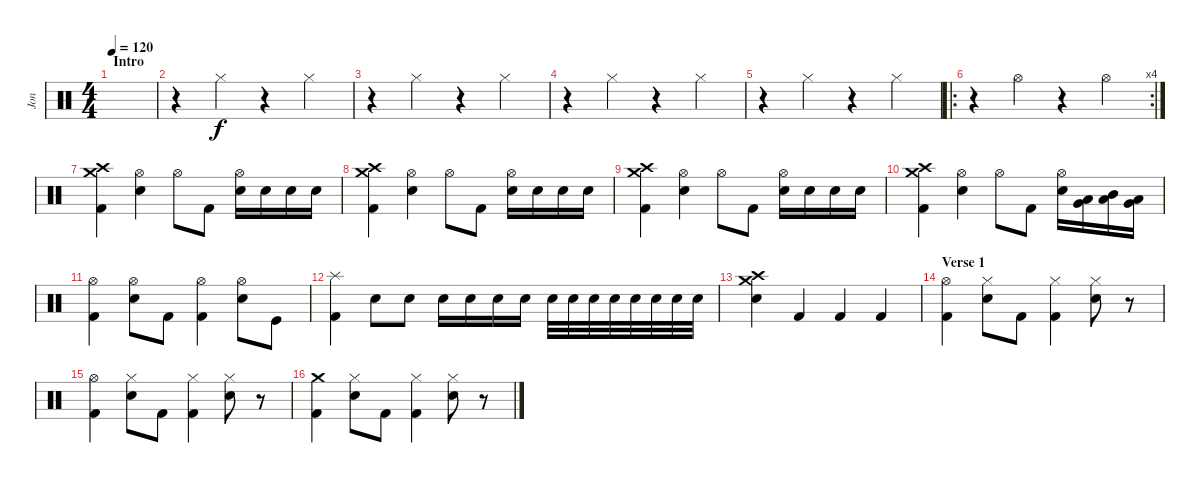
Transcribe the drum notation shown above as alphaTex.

\track ("Jon" "Jon") {instrument percussion}
\staff {score}
\articulation defaults
\ts (4 4)
\section ("" "Intro")
\tempo 120
\clef neutral
\ks c
|
r.4 "Hi-Hat (closed)".4 r.4 "Hi-Hat (closed)".4 |
r.4 "Hi-Hat (closed)".4 r.4 "Hi-Hat (closed)".4 |
r.4 "Hi-Hat (closed)".4 r.4 "Hi-Hat (closed)".4 |
r.4 "Hi-Hat (closed)".4 r.4 "Hi-Hat (closed)".4 |
\ro
\rc 4
r.4 "Hi-Hat (open)".4 r.4 "Hi-Hat (open)".4 |
("Crash high (hit)" "Crash medium (hit)" "Kick (hit) 2").4 ("Snare (hit) 2" "Hi-Hat (open)").4 "Hi-Hat (open)".8 "Kick (hit) 2".8 ("Hi-Hat (open)" "Snare (hit) 2").16 "Snare (hit) 2".16 "Snare (hit) 2".16 "Snare (hit) 2".16 |
("Crash high (hit)" "Crash medium (hit)" "Kick (hit) 2").4 ("Snare (hit) 2" "Hi-Hat (open)").4 "Hi-Hat (open)".8 "Kick (hit) 2".8 ("Hi-Hat (open)" "Snare (hit) 2").16 "Snare (hit) 2".16 "Snare (hit) 2".16 "Snare (hit) 2".16 |
("Crash high (hit)" "Crash medium (hit)" "Kick (hit) 2").4 ("Snare (hit) 2" "Hi-Hat (open)").4 "Hi-Hat (open)".8 "Kick (hit) 2".8 ("Hi-Hat (open)" "Snare (hit) 2").16 "Snare (hit) 2".16 "Snare (hit) 2".16 "Snare (hit) 2".16 |
("Crash high (hit)" "Crash medium (hit)" "Kick (hit) 2").4 ("Snare (hit) 2" "Hi-Hat (open)").4 "Hi-Hat (open)".8 "Kick (hit) 2".8 ("Hi-Hat (open)" "Snare (hit) 2").16 ("Very Low Tom (hit)" "Low Tom (hit)").16 ("Low Tom (hit)" "Mid Tom (hit)").16 ("Very Low Tom (hit)" "Low Tom (hit)").16 |
("Hi-Hat (open)" "Kick (hit) 2").4 ("Snare (hit) 2" "Hi-Hat (open)").8 "Kick (hit) 2".8 ("Hi-Hat (open)" "Kick (hit) 2").4 ("Snare (hit) 2" "Hi-Hat (open)").8 "Kick (hit)".8 |
("Splash (hit)" "Kick (hit) 2").4 "Snare (hit) 2".8 "Snare (hit) 2".8 "Snare (hit) 2".16 "Snare (hit) 2".16 "Snare (hit) 2".16 "Snare (hit) 2".16 "Snare (hit) 2".32 "Snare (hit) 2".32 "Snare (hit) 2".32 "Snare (hit) 2".32 "Snare (hit) 2".32 "Snare (hit) 2".32 "Snare (hit) 2".32 "Snare (hit) 2".32 |
("Crash medium (hit)" "Crash high (hit)" "Snare (hit) 2").4 "Kick (hit) 2".4 "Kick (hit) 2".4 "Kick (hit) 2".4 |
\section ("" "Verse 1")
("Hi-Hat (open)" "Kick (hit) 2").4 ("Snare (hit) 2" "Hi-Hat (closed)").8 "Kick (hit) 2".8 ("Hi-Hat (closed)" "Kick (hit) 2").4 ("Snare (hit) 2" "Hi-Hat (closed)").8 r.8 |
("Hi-Hat (open)" "Kick (hit) 2").4 ("Snare (hit) 2" "Hi-Hat (closed)").8 "Kick (hit) 2".8 ("Hi-Hat (closed)" "Kick (hit) 2").4 ("Snare (hit) 2" "Hi-Hat (closed)").8 r.8 |
("Crash medium (hit)" "Kick (hit) 2").4 ("Snare (hit) 2" "Hi-Hat (closed)").8 "Kick (hit) 2".8 ("Hi-Hat (closed)" "Kick (hit) 2").4 ("Snare (hit) 2" "Hi-Hat (closed)").8 r.8
